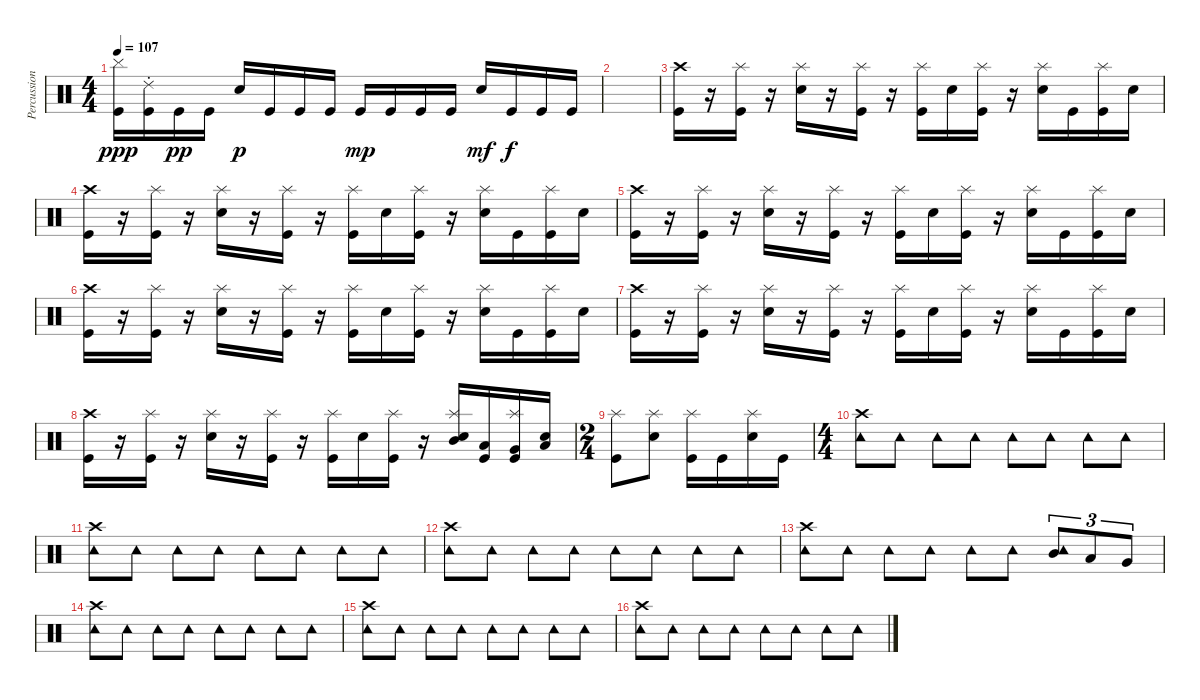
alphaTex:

\track ("Percussions" "Percussion") {instrument percussion}
\staff {score}
\articulation defaults
\ts (4 4)
\tempo 107
\clef neutral
\ks c
("Cymbal (hit)" "Kick (hit)").16{dy ppp} ("Ride (choke) 2" "Kick (hit)").16 "Kick (hit)".16{dy pp} "Kick (hit)".16 "Electric Snare (hit)".16{dy p} "Kick (hit)".16 "Kick (hit)".16 "Kick (hit)".16 "Kick (hit)".16{dy mp} "Kick (hit)".16 "Kick (hit)".16 "Kick (hit)".16 "Electric Snare (hit)".16{dy mf} "Kick (hit)".16{dy f} "Kick (hit)".16 "Kick (hit)".16 |
|
("Crash high (hit)" "Kick (hit)").16 r.16 ("Splash (hit)" "Kick (hit)").16 r.16 ("Splash (hit)" "Electric Snare (hit)").16 r.16 ("Splash (hit)" "Kick (hit)").16 r.16 ("Splash (hit)" "Kick (hit)").16 "Electric Snare (hit)".16 ("Splash (hit)" "Kick (hit)").16 r.16 ("Splash (hit)" "Electric Snare (hit)").16 "Kick (hit)".16 ("Splash (hit)" "Kick (hit)").16 "Electric Snare (hit)".16 |
("Crash high (hit)" "Kick (hit)").16 r.16 ("Splash (hit)" "Kick (hit)").16 r.16 ("Splash (hit)" "Electric Snare (hit)").16 r.16 ("Splash (hit)" "Kick (hit)").16 r.16 ("Splash (hit)" "Kick (hit)").16 "Electric Snare (hit)".16 ("Splash (hit)" "Kick (hit)").16 r.16 ("Splash (hit)" "Electric Snare (hit)").16 "Kick (hit)".16 ("Splash (hit)" "Kick (hit)").16 "Electric Snare (hit)".16 |
("Crash high (hit)" "Kick (hit)").16 r.16 ("Splash (hit)" "Kick (hit)").16 r.16 ("Splash (hit)" "Electric Snare (hit)").16 r.16 ("Splash (hit)" "Kick (hit)").16 r.16 ("Splash (hit)" "Kick (hit)").16 "Electric Snare (hit)".16 ("Splash (hit)" "Kick (hit)").16 r.16 ("Splash (hit)" "Electric Snare (hit)").16 "Kick (hit)".16 ("Splash (hit)" "Kick (hit)").16 "Electric Snare (hit)".16 |
("Crash high (hit)" "Kick (hit)").16 r.16 ("Splash (hit)" "Kick (hit)").16 r.16 ("Splash (hit)" "Electric Snare (hit)").16 r.16 ("Splash (hit)" "Kick (hit)").16 r.16 ("Splash (hit)" "Kick (hit)").16 "Electric Snare (hit)".16 ("Splash (hit)" "Kick (hit)").16 r.16 ("Splash (hit)" "Electric Snare (hit)").16 "Kick (hit)".16 ("Splash (hit)" "Kick (hit)").16 "Electric Snare (hit)".16 |
("Crash high (hit)" "Kick (hit)").16 r.16 ("Splash (hit)" "Kick (hit)").16 r.16 ("Splash (hit)" "Electric Snare (hit)").16 r.16 ("Splash (hit)" "Kick (hit)").16 r.16 ("Splash (hit)" "Kick (hit)").16 "Electric Snare (hit)".16 ("Splash (hit)" "Kick (hit)").16 r.16 ("Splash (hit)" "Electric Snare (hit)").16 "Kick (hit)".16 ("Splash (hit)" "Kick (hit)").16 "Electric Snare (hit)".16 |
("Crash high (hit)" "Kick (hit)").16 r.16 ("Splash (hit)" "Kick (hit)").16 r.16 ("Splash (hit)" "Electric Snare (hit)").16 r.16 ("Splash (hit)" "Kick (hit)").16 r.16 ("Splash (hit)" "Kick (hit)").16 "Electric Snare (hit)".16 ("Splash (hit)" "Kick (hit)").16 r.16 ("Splash (hit)" "Mid Tom (hit)" "Electric Snare (hit)").16 ("Low Tom (hit)" "Kick (hit)").16 ("Splash (hit)" "Very Low Tom (hit)" "Kick (hit)").16 ("Low Floor Tom (hit)" "Electric Snare (hit)").16 |
\ts (2 4)
("Splash (hit)" "Kick (hit)").8 ("Splash (hit)" "Electric Snare (hit)").8 ("Splash (hit)" "Kick (hit)").16 "Kick (hit)".16 ("Splash (hit)" "Electric Snare (hit)").16 "Kick (hit)".16 |
\ts (4 4)
("Tambourine (hit)" "Crash high (hit)").8 "Tambourine (hit)".8 "Tambourine (hit)".8 "Tambourine (hit)".8 "Tambourine (hit)".8 "Tambourine (hit)".8 "Tambourine (hit)".8 "Tambourine (hit)".8 |
("Tambourine (hit)" "Crash high (hit)").8 "Tambourine (hit)".8 "Tambourine (hit)".8 "Tambourine (hit)".8 "Tambourine (hit)".8 "Tambourine (hit)".8 "Tambourine (hit)".8 "Tambourine (hit)".8 |
("Tambourine (hit)" "Crash high (hit)").8 "Tambourine (hit)".8 "Tambourine (hit)".8 "Tambourine (hit)".8 "Tambourine (hit)".8 "Tambourine (hit)".8 "Tambourine (hit)".8 "Tambourine (hit)".8 |
("Tambourine (hit)" "Crash high (hit)").8 "Tambourine (hit)".8 "Tambourine (hit)".8 "Tambourine (hit)".8 "Tambourine (hit)".8 "Tambourine (hit)".8 ("Tambourine (hit)" "Mid Tom (hit)").8{tu (3 2)} "Low Tom (hit)".8{tu (3 2)} "Very Low Tom (hit)".8{tu (3 2)} |
("Tambourine (hit)" "Crash high (hit)").8 "Tambourine (hit)".8 "Tambourine (hit)".8 "Tambourine (hit)".8 "Tambourine (hit)".8 "Tambourine (hit)".8 "Tambourine (hit)".8 "Tambourine (hit)".8 |
("Tambourine (hit)" "Crash high (hit)").8 "Tambourine (hit)".8 "Tambourine (hit)".8 "Tambourine (hit)".8 "Tambourine (hit)".8 "Tambourine (hit)".8 "Tambourine (hit)".8 "Tambourine (hit)".8 |
("Tambourine (hit)" "Crash high (hit)").8 "Tambourine (hit)".8 "Tambourine (hit)".8 "Tambourine (hit)".8 "Tambourine (hit)".8 "Tambourine (hit)".8 "Tambourine (hit)".8 "Tambourine (hit)".8
